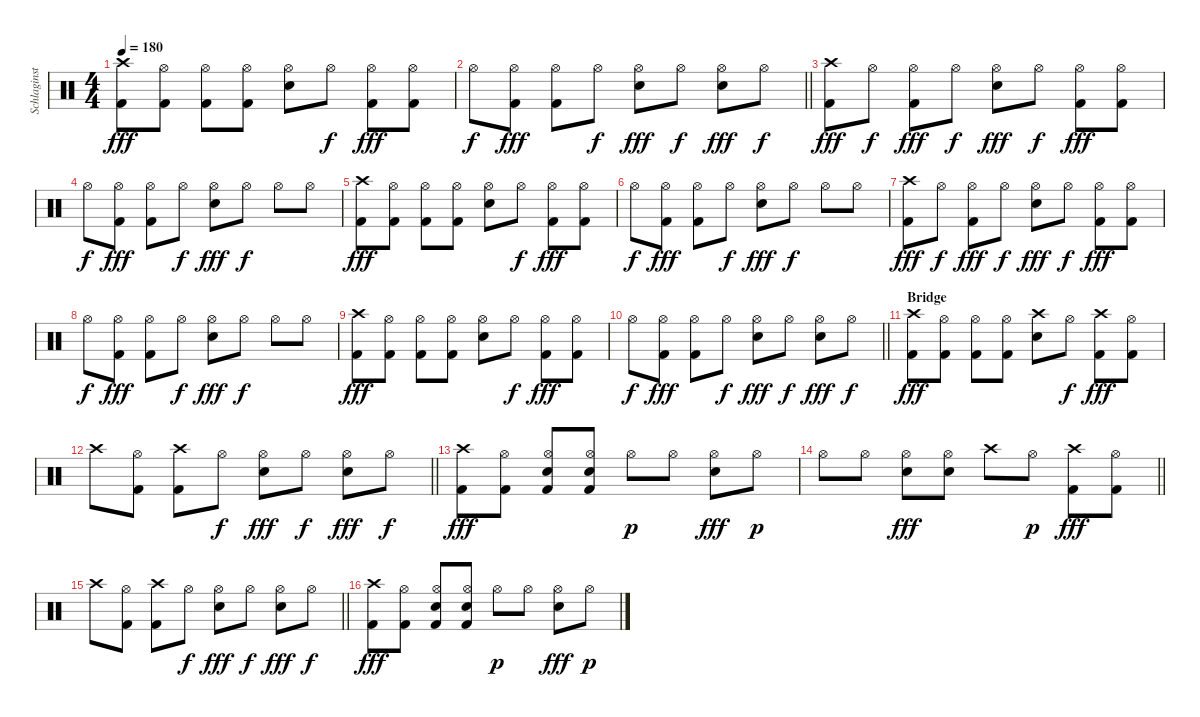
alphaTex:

\track ("Schlaginstrumente - Auswahl" "Schlaginst") {instrument percussion}
\staff {score}
\articulation defaults
\ts (4 4)
\tempo 180
\clef neutral
\ks c
("Crash high (hit)" "Kick (hit) 2").8{dy fff} ("Hi-Hat (open)" "Kick (hit) 2").8 ("Hi-Hat (open)" "Kick (hit) 2").8 ("Hi-Hat (open)" "Kick (hit) 2").8 ("Hi-Hat (open)" "Snare (hit) 2").8 "Hi-Hat (open)".8{dy f} ("Hi-Hat (open)" "Kick (hit) 2").8{dy fff} ("Hi-Hat (open)" "Kick (hit) 2").8 |
\barLineRight lightlight "Hi-Hat (open)".8{dy f}
("Hi-Hat (open)" "Kick (hit) 2").8{dy fff} ("Hi-Hat (open)" "Kick (hit) 2").8 "Hi-Hat (open)".8{dy f} ("Hi-Hat (open)" "Snare (hit) 2").8{dy fff} "Hi-Hat (open)".8{dy f} ("Hi-Hat (open)" "Snare (hit) 2").8{dy fff} "Hi-Hat (open)".8{dy f} |
("Crash high (hit)" "Kick (hit) 2").8{dy fff} "Hi-Hat (open)".8{dy f} ("Hi-Hat (open)" "Kick (hit) 2").8{dy fff} "Hi-Hat (open)".8{dy f} ("Hi-Hat (open)" "Snare (hit) 2").8{dy fff} "Hi-Hat (open)".8{dy f} ("Hi-Hat (open)" "Kick (hit) 2").8{dy fff} ("Hi-Hat (open)" "Kick (hit) 2").8 |
"Hi-Hat (open)".8{dy f} ("Hi-Hat (open)" "Kick (hit) 2").8{dy fff} ("Hi-Hat (open)" "Kick (hit) 2").8 "Hi-Hat (open)".8{dy f} ("Hi-Hat (open)" "Snare (hit) 2").8{dy fff} "Hi-Hat (open)".8{dy f} "Hi-Hat (open)".8 "Hi-Hat (open)".8 |
("Crash high (hit)" "Kick (hit) 2").8{dy fff} ("Hi-Hat (open)" "Kick (hit) 2").8 ("Hi-Hat (open)" "Kick (hit) 2").8 ("Hi-Hat (open)" "Kick (hit) 2").8 ("Hi-Hat (open)" "Snare (hit) 2").8 "Hi-Hat (open)".8{dy f} ("Hi-Hat (open)" "Kick (hit) 2").8{dy fff} ("Hi-Hat (open)" "Kick (hit) 2").8 |
"Hi-Hat (open)".8{dy f} ("Hi-Hat (open)" "Kick (hit) 2").8{dy fff} ("Hi-Hat (open)" "Kick (hit) 2").8 "Hi-Hat (open)".8{dy f} ("Hi-Hat (open)" "Snare (hit) 2").8{dy fff} "Hi-Hat (open)".8{dy f} "Hi-Hat (open)".8 "Hi-Hat (open)".8 |
("Crash high (hit)" "Kick (hit) 2").8{dy fff} "Hi-Hat (open)".8{dy f} ("Hi-Hat (open)" "Kick (hit) 2").8{dy fff} "Hi-Hat (open)".8{dy f} ("Hi-Hat (open)" "Snare (hit) 2").8{dy fff} "Hi-Hat (open)".8{dy f} ("Hi-Hat (open)" "Kick (hit) 2").8{dy fff} ("Hi-Hat (open)" "Kick (hit) 2").8 |
"Hi-Hat (open)".8{dy f} ("Hi-Hat (open)" "Kick (hit) 2").8{dy fff} ("Hi-Hat (open)" "Kick (hit) 2").8 "Hi-Hat (open)".8{dy f} ("Hi-Hat (open)" "Snare (hit) 2").8{dy fff} "Hi-Hat (open)".8{dy f} "Hi-Hat (open)".8 "Hi-Hat (open)".8 |
("Crash high (hit)" "Kick (hit) 2").8{dy fff} ("Hi-Hat (open)" "Kick (hit) 2").8 ("Hi-Hat (open)" "Kick (hit) 2").8 ("Hi-Hat (open)" "Kick (hit) 2").8 ("Hi-Hat (open)" "Snare (hit) 2").8 "Hi-Hat (open)".8{dy f} ("Hi-Hat (open)" "Kick (hit) 2").8{dy fff} ("Hi-Hat (open)" "Kick (hit) 2").8 |
\barLineRight lightlight "Hi-Hat (open)".8{dy f}
("Hi-Hat (open)" "Kick (hit) 2").8{dy fff} ("Hi-Hat (open)" "Kick (hit) 2").8 "Hi-Hat (open)".8{dy f} ("Hi-Hat (open)" "Snare (hit) 2").8{dy fff} "Hi-Hat (open)".8{dy f} ("Hi-Hat (open)" "Snare (hit) 2").8{dy fff} "Hi-Hat (open)".8{dy f} |
\section ("" "Bridge")
("Crash high (hit)" "Kick (hit) 2").8{dy fff} ("Hi-Hat (open)" "Kick (hit) 2").8 ("Hi-Hat (open)" "Kick (hit) 2").8 ("Hi-Hat (open)" "Kick (hit) 2").8 ("Crash high (hit)" "Snare (hit) 2").8 "Hi-Hat (open)".8{dy f} ("Crash high (hit)" "Kick (hit) 2").8{dy fff} ("Hi-Hat (open)" "Kick (hit) 2").8 |
\barLineRight lightlight "Crash high (hit)".8
("Hi-Hat (open)" "Kick (hit) 2").8 ("Crash high (hit)" "Kick (hit) 2").8 "Hi-Hat (open)".8{dy f} ("Hi-Hat (open)" "Snare (hit) 2").8{dy fff} "Hi-Hat (open)".8{dy f} ("Hi-Hat (open)" "Snare (hit) 2").8{dy fff} "Hi-Hat (open)".8{dy f} |
("Crash high (hit)" "Kick (hit) 2").8{dy fff} ("Hi-Hat (open)" "Kick (hit) 2").8 ("Hi-Hat (open)" "Snare (hit) 2" "Kick (hit) 2").8 ("Hi-Hat (open)" "Snare (hit) 2" "Kick (hit) 2").8 "Hi-Hat (open)".8{dy p} "Hi-Hat (open)".8 ("Hi-Hat (open)" "Snare (hit) 2").8{dy fff} "Hi-Hat (open)".8{dy p} |
\barLineRight lightlight "Hi-Hat (open)".8 "Hi-Hat (open)".8
("Hi-Hat (open)" "Snare (hit) 2").8{dy fff} ("Hi-Hat (open)" "Snare (hit) 2").8 "Crash high (hit)".8 "Hi-Hat (open)".8{dy p} ("Crash high (hit)" "Kick (hit) 2").8{dy fff} ("Hi-Hat (open)" "Kick (hit) 2").8 |
\barLineRight lightlight "Crash high (hit)".8
("Hi-Hat (open)" "Kick (hit) 2").8 ("Crash high (hit)" "Kick (hit) 2").8 "Hi-Hat (open)".8{dy f} ("Hi-Hat (open)" "Snare (hit) 2").8{dy fff} "Hi-Hat (open)".8{dy f} ("Hi-Hat (open)" "Snare (hit) 2").8{dy fff} "Hi-Hat (open)".8{dy f} |
("Crash high (hit)" "Kick (hit) 2").8{dy fff} ("Hi-Hat (open)" "Kick (hit) 2").8 ("Hi-Hat (open)" "Snare (hit) 2" "Kick (hit) 2").8 ("Hi-Hat (open)" "Snare (hit) 2" "Kick (hit) 2").8 "Hi-Hat (open)".8{dy p} "Hi-Hat (open)".8 ("Hi-Hat (open)" "Snare (hit) 2").8{dy fff} "Hi-Hat (open)".8{dy p}
